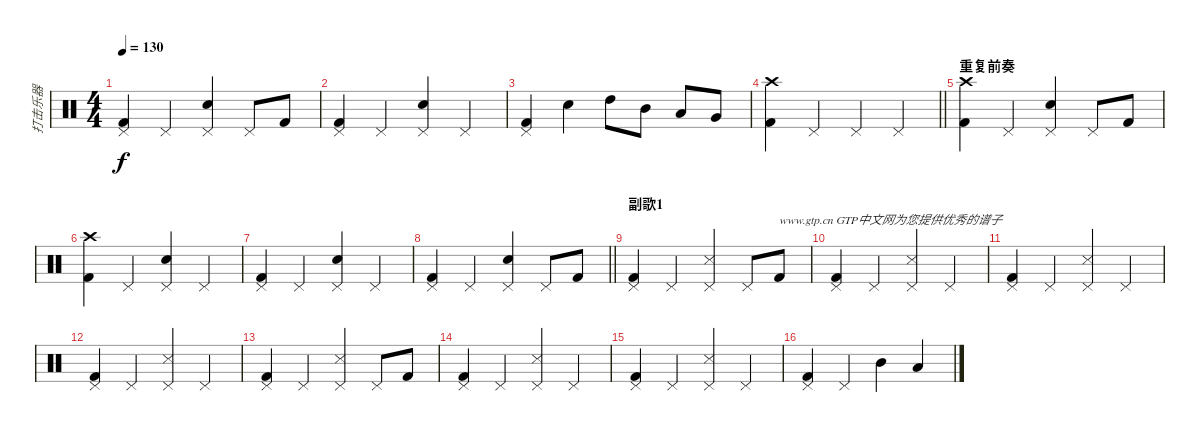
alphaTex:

\track ("打击乐器" "打击乐器") {instrument percussion}
\staff {score}
\articulation defaults
\ts (4 4)
\tempo 130
\clef neutral
\ks c
("Pedal Hi-Hat (hit)" "Kick (hit) 2").4{dy f} "Pedal Hi-Hat (hit)".4 ("Pedal Hi-Hat (hit)" "Snare (hit) 2").4 "Pedal Hi-Hat (hit)".8 "Kick (hit) 2".8 |
("Pedal Hi-Hat (hit)" "Kick (hit) 2").4 "Pedal Hi-Hat (hit)".4 ("Pedal Hi-Hat (hit)" "Snare (hit) 2").4 "Pedal Hi-Hat (hit)".4 |
("Pedal Hi-Hat (hit)" "Kick (hit) 2").4 "Snare (hit) 2".4 "High Tom (hit)".8 "Mid Tom (hit)".8 "Low Tom (hit)".8 "Very Low Tom (hit)".8 |
\barLineRight lightlight
("Crash high (hit)" "Kick (hit) 2").4 "Pedal Hi-Hat (hit)".4 "Pedal Hi-Hat (hit)".4 "Pedal Hi-Hat (hit)".4 |
\section ("" "重复前奏")
("Crash high (hit)" "Kick (hit) 2").4 "Pedal Hi-Hat (hit)".4 ("Pedal Hi-Hat (hit)" "Snare (hit) 2").4 "Pedal Hi-Hat (hit)".8 "Kick (hit) 2".8 |
("Crash high (hit)" "Kick (hit) 2").4 "Pedal Hi-Hat (hit)".4 ("Pedal Hi-Hat (hit)" "Snare (hit) 2").4 "Pedal Hi-Hat (hit)".4 |
("Pedal Hi-Hat (hit)" "Kick (hit) 2").4 "Pedal Hi-Hat (hit)".4 ("Pedal Hi-Hat (hit)" "Snare (hit) 2").4 "Pedal Hi-Hat (hit)".4 |
\barLineRight lightlight
("Pedal Hi-Hat (hit)" "Kick (hit) 2").4 "Pedal Hi-Hat (hit)".4 ("Pedal Hi-Hat (hit)" "Snare (hit) 2").4 "Pedal Hi-Hat (hit)".8 "Kick (hit) 2".8 |
\section ("" "副歌1")
("Pedal Hi-Hat (hit)" "Kick (hit) 2").4 "Pedal Hi-Hat (hit)".4 ("Pedal Hi-Hat (hit)" "Metronome (hit)").4 "Pedal Hi-Hat (hit)".8 "Kick (hit) 2".8{txt "www.gtp.cn GTP中文网为您提供优秀的谱子"} |
("Pedal Hi-Hat (hit)" "Kick (hit) 2").4 "Pedal Hi-Hat (hit)".4 ("Pedal Hi-Hat (hit)" "Metronome (hit)").4 "Pedal Hi-Hat (hit)".4 |
("Pedal Hi-Hat (hit)" "Kick (hit) 2").4 "Pedal Hi-Hat (hit)".4 ("Pedal Hi-Hat (hit)" "Metronome (hit)").4 "Pedal Hi-Hat (hit)".4 |
("Pedal Hi-Hat (hit)" "Kick (hit) 2").4 "Pedal Hi-Hat (hit)".4 ("Pedal Hi-Hat (hit)" "Metronome (hit)").4 "Pedal Hi-Hat (hit)".4 |
("Pedal Hi-Hat (hit)" "Kick (hit) 2").4 "Pedal Hi-Hat (hit)".4 ("Pedal Hi-Hat (hit)" "Metronome (hit)").4 "Pedal Hi-Hat (hit)".8 "Kick (hit) 2".8 |
("Pedal Hi-Hat (hit)" "Kick (hit) 2").4 "Pedal Hi-Hat (hit)".4 ("Pedal Hi-Hat (hit)" "Metronome (hit)").4 "Pedal Hi-Hat (hit)".4 |
("Pedal Hi-Hat (hit)" "Kick (hit) 2").4 "Pedal Hi-Hat (hit)".4 ("Pedal Hi-Hat (hit)" "Metronome (hit)").4 "Pedal Hi-Hat (hit)".4 |
("Pedal Hi-Hat (hit)" "Kick (hit) 2").4 "Pedal Hi-Hat (hit)".4 "Mid Tom (hit)".4 "Low Tom (hit)".4
